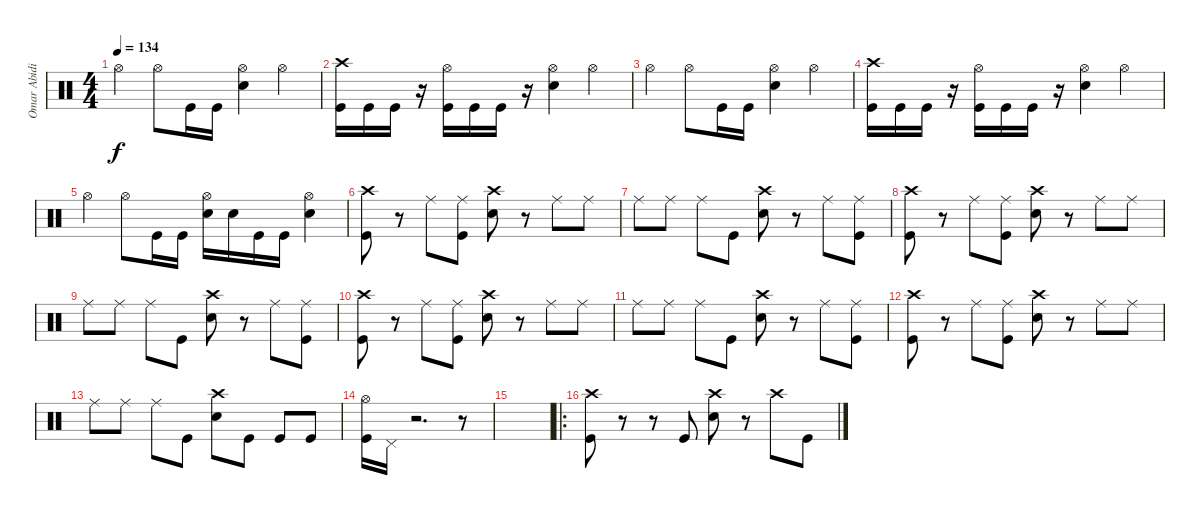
\track ("Omar Abidi" "Omar Abidi") {instrument percussion}
\staff {score}
\articulation defaults
\ts (4 4)
\tempo 134
\clef neutral
\ks c "Hi-Hat (open)".4{dy f} "Hi-Hat (open)".8 "Kick (hit)".16 "Kick (hit)".16
("Hi-Hat (open)" "Snare (hit) 2").4 "Hi-Hat (open)".4 |
("Crash high (hit)" "Kick (hit)").16 "Kick (hit)".16 "Kick (hit)".16 r.16 ("Hi-Hat (open)" "Kick (hit)").16 "Kick (hit)".16 "Kick (hit)".16 r.16 ("Hi-Hat (open)" "Snare (hit) 2").4 "Hi-Hat (open)".4 |
"Hi-Hat (open)".4 "Hi-Hat (open)".8 "Kick (hit)".16 "Kick (hit)".16 ("Hi-Hat (open)" "Snare (hit) 2").4 "Hi-Hat (open)".4 |
("Crash high (hit)" "Kick (hit)").16 "Kick (hit)".16 "Kick (hit)".16 r.16 ("Hi-Hat (open)" "Kick (hit)").16 "Kick (hit)".16 "Kick (hit)".16 r.16 ("Hi-Hat (open)" "Snare (hit) 2").4 "Hi-Hat (open)".4 |
"Hi-Hat (open)".4 "Hi-Hat (open)".8 "Kick (hit)".16 "Kick (hit)".16 ("Hi-Hat (open)" "Snare (hit) 2").16 "Snare (hit) 2".16 "Kick (hit)".16 "Kick (hit)".16 ("Hi-Hat (open)" "Snare (hit) 2").4 |
("Crash high (hit)" "Kick (hit)").8 r.8 "Ride (middle)".8 ("Ride (middle)" "Kick (hit)").8 ("Crash high (hit)" "Snare (hit) 2").8 r.8 "Ride (middle)".8 "Ride (middle)".8 |
"Ride (middle)".8 "Ride (middle)".8 "Ride (middle)".8 "Kick (hit)".8 ("Crash high (hit)" "Snare (hit) 2").8 r.8 "Ride (middle)".8 ("Ride (middle)" "Kick (hit)").8 |
("Crash high (hit)" "Kick (hit)").8 r.8 "Ride (middle)".8 ("Ride (middle)" "Kick (hit)").8 ("Crash high (hit)" "Snare (hit) 2").8 r.8 "Ride (middle)".8 "Ride (middle)".8 |
"Ride (middle)".8 "Ride (middle)".8 "Ride (middle)".8 "Kick (hit)".8 ("Crash high (hit)" "Snare (hit) 2").8 r.8 "Ride (middle)".8 ("Ride (middle)" "Kick (hit)").8 |
("Crash high (hit)" "Kick (hit)").8 r.8 "Ride (middle)".8 ("Ride (middle)" "Kick (hit)").8 ("Crash high (hit)" "Snare (hit) 2").8 r.8 "Ride (middle)".8 "Ride (middle)".8 |
"Ride (middle)".8 "Ride (middle)".8 "Ride (middle)".8 "Kick (hit)".8 ("Crash high (hit)" "Snare (hit) 2").8 r.8 "Ride (middle)".8 ("Ride (middle)" "Kick (hit)").8 |
("Crash high (hit)" "Kick (hit)").8 r.8 "Ride (middle)".8 ("Ride (middle)" "Kick (hit)").8 ("Crash high (hit)" "Snare (hit) 2").8 r.8 "Ride (middle)".8 "Ride (middle)".8 |
"Ride (middle)".8 "Ride (middle)".8 "Ride (middle)".8 "Kick (hit)".8 ("Crash high (hit)" "Snare (hit) 2").8 "Kick (hit)".8 "Kick (hit)".8 "Kick (hit)".8 |
("Hi-Hat (open)" "Kick (hit)").16 "Pedal Hi-Hat (hit)".16 r.2{d} r.8 |
|
\ro
("Crash high (hit)" "Kick (hit)").8 r.8 r.8 "Kick (hit)".8 ("Crash high (hit)" "Snare (hit) 2").8 r.8 "Crash high (hit)".8 "Kick (hit)".8
